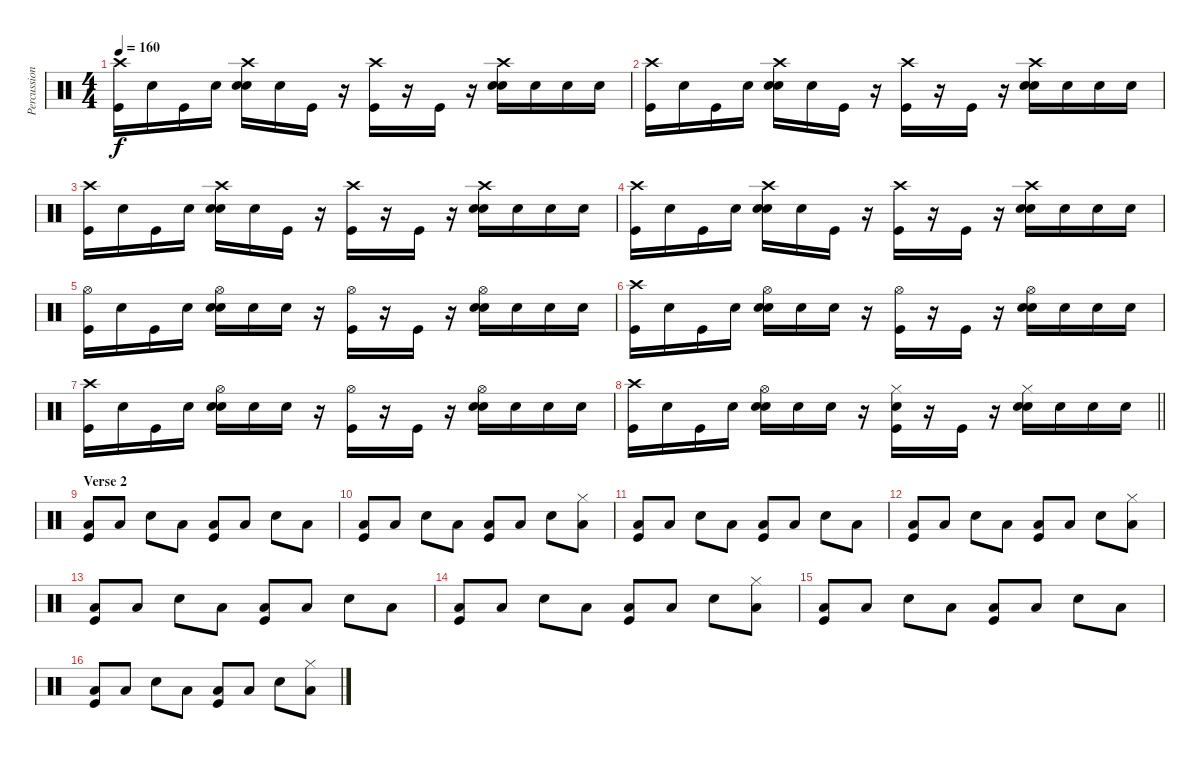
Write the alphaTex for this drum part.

\track ("Percussion" "Percussion") {instrument percussion}
\staff {score}
\articulation defaults
\ts (4 4)
\tempo 160
\clef neutral
\ks c
("Kick (hit)" "Crash high (hit)").16{dy f} "Snare (hit)".16 "Kick (hit)".16 "Snare (hit)".16 ("Snare (hit)" "Electric Snare (hit)" "Crash high (hit)").16 "Snare (hit)".16 "Kick (hit)".16 r.16 ("Kick (hit)" "Crash high (hit)").16 r.16 "Kick (hit)".16 r.16 ("Snare (hit)" "Electric Snare (hit)" "Crash high (hit)").16 "Snare (hit)".16 "Snare (hit)".16 "Snare (hit)".16 |
("Kick (hit)" "Crash high (hit)").16 "Snare (hit)".16 "Kick (hit)".16 "Snare (hit)".16 ("Snare (hit)" "Electric Snare (hit)" "Crash high (hit)").16 "Snare (hit)".16 "Kick (hit)".16 r.16 ("Kick (hit)" "Crash high (hit)").16 r.16 "Kick (hit)".16 r.16 ("Snare (hit)" "Electric Snare (hit)" "Crash high (hit)").16 "Snare (hit)".16 "Snare (hit)".16 "Snare (hit)".16 |
("Kick (hit)" "Crash high (hit)").16 "Snare (hit)".16 "Kick (hit)".16 "Snare (hit)".16 ("Snare (hit)" "Electric Snare (hit)" "Crash high (hit)").16 "Snare (hit)".16 "Kick (hit)".16 r.16 ("Kick (hit)" "Crash high (hit)").16 r.16 "Kick (hit)".16 r.16 ("Snare (hit)" "Electric Snare (hit)" "Crash high (hit)").16 "Snare (hit)".16 "Snare (hit)".16 "Snare (hit)".16 |
("Kick (hit)" "Crash high (hit)").16 "Snare (hit)".16 "Kick (hit)".16 "Snare (hit)".16 ("Snare (hit)" "Electric Snare (hit)" "Crash high (hit)").16 "Snare (hit)".16 "Kick (hit)".16 r.16 ("Kick (hit)" "Crash high (hit)").16 r.16 "Kick (hit)".16 r.16 ("Snare (hit)" "Electric Snare (hit)" "Crash high (hit)").16 "Snare (hit)".16 "Snare (hit)".16 "Snare (hit)".16 |
("Kick (hit)" "Hi-Hat (open)").16 "Snare (hit)".16 "Kick (hit)".16 "Snare (hit)".16 ("Snare (hit)" "Electric Snare (hit)" "Hi-Hat (open)").16 "Snare (hit)".16 "Snare (hit)".16 r.16 ("Kick (hit)" "Hi-Hat (open)").16 r.16 "Kick (hit)".16 r.16 ("Snare (hit)" "Electric Snare (hit)" "Hi-Hat (open)").16 "Snare (hit)".16 "Snare (hit)".16 "Snare (hit)".16 |
("Kick (hit)" "Crash high (hit)").16 "Snare (hit)".16 "Kick (hit)".16 "Snare (hit)".16 ("Snare (hit)" "Electric Snare (hit)" "Hi-Hat (open)").16 "Snare (hit)".16 "Snare (hit)".16 r.16 ("Kick (hit)" "Hi-Hat (open)").16 r.16 "Kick (hit)".16 r.16 ("Snare (hit)" "Electric Snare (hit)" "Hi-Hat (open)").16 "Snare (hit)".16 "Snare (hit)".16 "Snare (hit)".16 |
("Kick (hit)" "Crash high (hit)").16 "Snare (hit)".16 "Kick (hit)".16 "Snare (hit)".16 ("Snare (hit)" "Electric Snare (hit)" "Hi-Hat (open)").16 "Snare (hit)".16 "Snare (hit)".16 r.16 ("Kick (hit)" "Hi-Hat (open)").16 r.16 "Kick (hit)".16 r.16 ("Snare (hit)" "Electric Snare (hit)" "Hi-Hat (open)").16 "Snare (hit)".16 "Snare (hit)".16 "Snare (hit)".16 |
\barLineRight lightlight
("Kick (hit)" "Crash high (hit)").16 "Snare (hit)".16 "Kick (hit)".16 "Snare (hit)".16 ("Snare (hit)" "Electric Snare (hit)" "Hi-Hat (open)").16 "Snare (hit)".16 "Snare (hit)".16 r.16 ("Kick (hit)" "Electric Snare (hit)" "Hi-Hat (closed)").16 r.16 "Kick (hit)".16 r.16 ("Snare (hit)" "Electric Snare (hit)" "Hi-Hat (closed)").16 "Snare (hit)".16 "Snare (hit)".16 "Snare (hit)".16 |
\section ("" "Verse 2")
("Kick (hit)" "Low Floor Tom (hit)").8 "Low Floor Tom (hit)".8 "Electric Snare (hit)".8 "Low Floor Tom (hit)".8 ("Kick (hit)" "Low Floor Tom (hit)").8 "Low Floor Tom (hit)".8 "Electric Snare (hit)".8 "Low Floor Tom (hit)".8 |
("Kick (hit)" "Low Floor Tom (hit)").8 "Low Floor Tom (hit)".8 "Electric Snare (hit)".8 "Low Floor Tom (hit)".8 ("Kick (hit)" "Low Floor Tom (hit)").8 "Low Floor Tom (hit)".8 "Electric Snare (hit)".8 ("Low Floor Tom (hit)" "Hi-Hat (closed)").8 |
("Kick (hit)" "Low Floor Tom (hit)").8 "Low Floor Tom (hit)".8 "Electric Snare (hit)".8 "Low Floor Tom (hit)".8 ("Kick (hit)" "Low Floor Tom (hit)").8 "Low Floor Tom (hit)".8 "Electric Snare (hit)".8 "Low Floor Tom (hit)".8 |
("Kick (hit)" "Low Floor Tom (hit)").8 "Low Floor Tom (hit)".8 "Electric Snare (hit)".8 "Low Floor Tom (hit)".8 ("Kick (hit)" "Low Floor Tom (hit)").8 "Low Floor Tom (hit)".8 "Electric Snare (hit)".8 ("Low Floor Tom (hit)" "Hi-Hat (closed)").8 |
("Kick (hit)" "Low Floor Tom (hit)").8 "Low Floor Tom (hit)".8 "Electric Snare (hit)".8 "Low Floor Tom (hit)".8 ("Kick (hit)" "Low Floor Tom (hit)").8 "Low Floor Tom (hit)".8 "Electric Snare (hit)".8 "Low Floor Tom (hit)".8 |
("Kick (hit)" "Low Floor Tom (hit)").8 "Low Floor Tom (hit)".8 "Electric Snare (hit)".8 "Low Floor Tom (hit)".8 ("Kick (hit)" "Low Floor Tom (hit)").8 "Low Floor Tom (hit)".8 "Electric Snare (hit)".8 ("Low Floor Tom (hit)" "Hi-Hat (closed)").8 |
("Kick (hit)" "Low Floor Tom (hit)").8 "Low Floor Tom (hit)".8 "Electric Snare (hit)".8 "Low Floor Tom (hit)".8 ("Kick (hit)" "Low Floor Tom (hit)").8 "Low Floor Tom (hit)".8 "Electric Snare (hit)".8 "Low Floor Tom (hit)".8 |
("Kick (hit)" "Low Floor Tom (hit)").8 "Low Floor Tom (hit)".8 "Electric Snare (hit)".8 "Low Floor Tom (hit)".8 ("Kick (hit)" "Low Floor Tom (hit)").8 "Low Floor Tom (hit)".8 "Electric Snare (hit)".8 ("Low Floor Tom (hit)" "Hi-Hat (closed)").8
